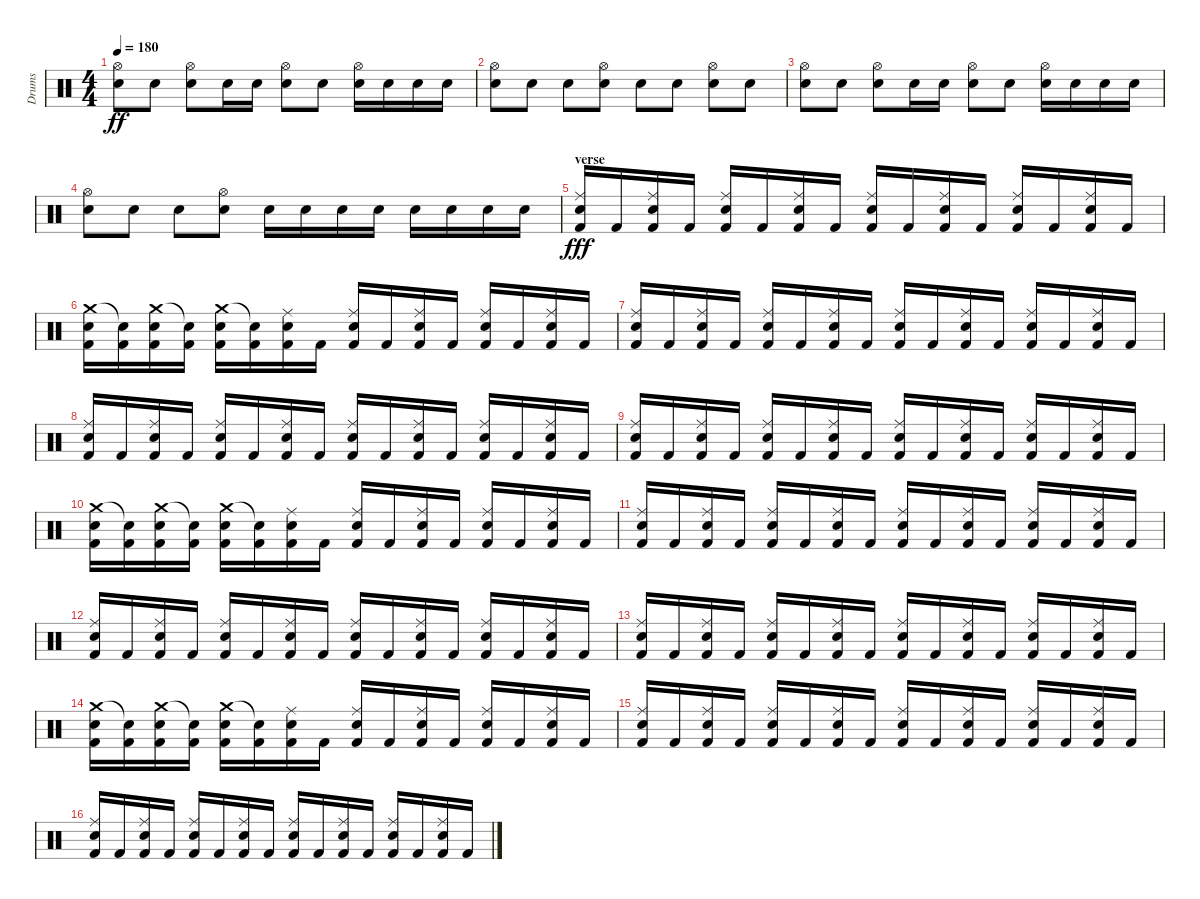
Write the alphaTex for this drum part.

\track ("Drums" "Drums") {instrument percussion}
\staff {score}
\articulation defaults
\ts (4 4)
\tempo 180
\clef neutral
\ks c
("Hi-Hat (open)" "Electric Snare (hit)").8{dy ff} "Snare (hit) 2".8 ("Hi-Hat (open)" "Electric Snare (hit)").8 "Snare (hit) 2".16 "Snare (hit) 2".16 ("Electric Snare (hit)" "Hi-Hat (open)").8 "Snare (hit) 2".8 ("Snare (hit) 2" "Hi-Hat (open)").16 "Snare (hit) 2".16 "Snare (hit) 2".16 "Snare (hit) 2".16 |
("Hi-Hat (open)" "Snare (hit) 2").8 "Snare (hit) 2".8 "Snare (hit) 2".8 ("Hi-Hat (open)" "Snare (hit) 2").8 "Snare (hit) 2".8 "Snare (hit) 2".8 ("Hi-Hat (open)" "Snare (hit) 2").8 "Snare (hit) 2".8 |
("Hi-Hat (open)" "Electric Snare (hit)").8 "Snare (hit) 2".8 ("Hi-Hat (open)" "Electric Snare (hit)").8 "Snare (hit) 2".16 "Snare (hit) 2".16 ("Electric Snare (hit)" "Hi-Hat (open)").8 "Snare (hit) 2".8 ("Snare (hit) 2" "Hi-Hat (open)").16 "Snare (hit) 2".16 "Snare (hit) 2".16 "Snare (hit) 2".16 |
("Hi-Hat (open)" "Snare (hit) 2").8 "Snare (hit) 2".8 "Snare (hit) 2".8 ("Hi-Hat (open)" "Snare (hit) 2").8 "Snare (hit) 2".16 "Snare (hit) 2".16 "Snare (hit) 2".16 "Snare (hit) 2".16 "Snare (hit) 2".16 "Snare (hit) 2".16 "Snare (hit) 2".16 "Snare (hit) 2".16 |
\section ("" "verse")
("Ride (middle)" "Electric Snare (hit)" "Kick (hit) 2").16{dy fff} "Kick (hit) 2".16 ("Ride (middle)" "Electric Snare (hit)" "Kick (hit) 2").16 "Kick (hit) 2".16 ("Ride (middle)" "Snare (hit) 2" "Kick (hit) 2").16 "Kick (hit) 2".16 ("Ride (middle)" "Snare (hit) 2" "Kick (hit) 2").16 "Kick (hit) 2".16 ("Ride (middle)" "Electric Snare (hit)" "Kick (hit) 2").16 "Kick (hit) 2".16 ("Ride (middle)" "Electric Snare (hit)" "Kick (hit) 2").16 "Kick (hit) 2".16 ("Ride (middle)" "Snare (hit) 2" "Kick (hit) 2").16 "Kick (hit) 2".16 ("Ride (middle)" "Snare (hit) 2" "Kick (hit) 2").16 "Kick (hit) 2".16 |
("Crash medium (hit)" "Electric Snare (hit)" "Kick (hit) 2").16 ("Snare (hit)"{t} "Kick (hit) 2").16 ("Crash medium (hit)" "Electric Snare (hit)" "Kick (hit) 2").16 ("Snare (hit)"{t} "Kick (hit) 2").16 ("Crash medium (hit)" "Snare (hit) 2" "Kick (hit) 2").16 ("Snare (hit)"{t} "Kick (hit) 2").16 ("Ride (middle)" "Snare (hit) 2" "Kick (hit) 2").16 "Kick (hit) 2".16 ("Ride (middle)" "Electric Snare (hit)" "Kick (hit) 2").16 "Kick (hit) 2".16 ("Ride (middle)" "Electric Snare (hit)" "Kick (hit) 2").16 "Kick (hit) 2".16 ("Ride (middle)" "Snare (hit) 2" "Kick (hit) 2").16 "Kick (hit) 2".16 ("Ride (middle)" "Snare (hit) 2" "Kick (hit) 2").16 "Kick (hit) 2".16 |
("Ride (middle)" "Electric Snare (hit)" "Kick (hit) 2").16 "Kick (hit) 2".16 ("Ride (middle)" "Electric Snare (hit)" "Kick (hit) 2").16 "Kick (hit) 2".16 ("Ride (middle)" "Snare (hit) 2" "Kick (hit) 2").16 "Kick (hit) 2".16 ("Ride (middle)" "Snare (hit) 2" "Kick (hit) 2").16 "Kick (hit) 2".16 ("Ride (middle)" "Electric Snare (hit)" "Kick (hit) 2").16 "Kick (hit) 2".16 ("Ride (middle)" "Electric Snare (hit)" "Kick (hit) 2").16 "Kick (hit) 2".16 ("Ride (middle)" "Snare (hit) 2" "Kick (hit) 2").16 "Kick (hit) 2".16 ("Ride (middle)" "Snare (hit) 2" "Kick (hit) 2").16 "Kick (hit) 2".16 |
("Ride (middle)" "Electric Snare (hit)" "Kick (hit) 2").16 "Kick (hit) 2".16 ("Ride (middle)" "Electric Snare (hit)" "Kick (hit) 2").16 "Kick (hit) 2".16 ("Ride (middle)" "Snare (hit) 2" "Kick (hit) 2").16 "Kick (hit) 2".16 ("Ride (middle)" "Snare (hit) 2" "Kick (hit) 2").16 "Kick (hit) 2".16 ("Ride (middle)" "Electric Snare (hit)" "Kick (hit) 2").16 "Kick (hit) 2".16 ("Ride (middle)" "Electric Snare (hit)" "Kick (hit) 2").16 "Kick (hit) 2".16 ("Ride (middle)" "Snare (hit) 2" "Kick (hit) 2").16 "Kick (hit) 2".16 ("Ride (middle)" "Snare (hit) 2" "Kick (hit) 2").16 "Kick (hit) 2".16 |
("Ride (middle)" "Electric Snare (hit)" "Kick (hit) 2").16 "Kick (hit) 2".16 ("Ride (middle)" "Electric Snare (hit)" "Kick (hit) 2").16 "Kick (hit) 2".16 ("Ride (middle)" "Snare (hit) 2" "Kick (hit) 2").16 "Kick (hit) 2".16 ("Ride (middle)" "Snare (hit) 2" "Kick (hit) 2").16 "Kick (hit) 2".16 ("Ride (middle)" "Electric Snare (hit)" "Kick (hit) 2").16 "Kick (hit) 2".16 ("Ride (middle)" "Electric Snare (hit)" "Kick (hit) 2").16 "Kick (hit) 2".16 ("Ride (middle)" "Snare (hit) 2" "Kick (hit) 2").16 "Kick (hit) 2".16 ("Ride (middle)" "Snare (hit) 2" "Kick (hit) 2").16 "Kick (hit) 2".16 |
("Crash medium (hit)" "Electric Snare (hit)" "Kick (hit) 2").16 ("Snare (hit)"{t} "Kick (hit) 2").16 ("Crash medium (hit)" "Electric Snare (hit)" "Kick (hit) 2").16 ("Snare (hit)"{t} "Kick (hit) 2").16 ("Crash medium (hit)" "Snare (hit) 2" "Kick (hit) 2").16 ("Snare (hit)"{t} "Kick (hit) 2").16 ("Ride (middle)" "Snare (hit) 2" "Kick (hit) 2").16 "Kick (hit) 2".16 ("Ride (middle)" "Electric Snare (hit)" "Kick (hit) 2").16 "Kick (hit) 2".16 ("Ride (middle)" "Electric Snare (hit)" "Kick (hit) 2").16 "Kick (hit) 2".16 ("Ride (middle)" "Snare (hit) 2" "Kick (hit) 2").16 "Kick (hit) 2".16 ("Ride (middle)" "Snare (hit) 2" "Kick (hit) 2").16 "Kick (hit) 2".16 |
("Ride (middle)" "Electric Snare (hit)" "Kick (hit) 2").16 "Kick (hit) 2".16 ("Ride (middle)" "Electric Snare (hit)" "Kick (hit) 2").16 "Kick (hit) 2".16 ("Ride (middle)" "Snare (hit) 2" "Kick (hit) 2").16 "Kick (hit) 2".16 ("Ride (middle)" "Snare (hit) 2" "Kick (hit) 2").16 "Kick (hit) 2".16 ("Ride (middle)" "Electric Snare (hit)" "Kick (hit) 2").16 "Kick (hit) 2".16 ("Ride (middle)" "Electric Snare (hit)" "Kick (hit) 2").16 "Kick (hit) 2".16 ("Ride (middle)" "Snare (hit) 2" "Kick (hit) 2").16 "Kick (hit) 2".16 ("Ride (middle)" "Snare (hit) 2" "Kick (hit) 2").16 "Kick (hit) 2".16 |
("Ride (middle)" "Electric Snare (hit)" "Kick (hit) 2").16 "Kick (hit) 2".16 ("Ride (middle)" "Electric Snare (hit)" "Kick (hit) 2").16 "Kick (hit) 2".16 ("Ride (middle)" "Snare (hit) 2" "Kick (hit) 2").16 "Kick (hit) 2".16 ("Ride (middle)" "Snare (hit) 2" "Kick (hit) 2").16 "Kick (hit) 2".16 ("Ride (middle)" "Electric Snare (hit)" "Kick (hit) 2").16 "Kick (hit) 2".16 ("Ride (middle)" "Electric Snare (hit)" "Kick (hit) 2").16 "Kick (hit) 2".16 ("Ride (middle)" "Snare (hit) 2" "Kick (hit) 2").16 "Kick (hit) 2".16 ("Ride (middle)" "Snare (hit) 2" "Kick (hit) 2").16 "Kick (hit) 2".16 |
("Ride (middle)" "Electric Snare (hit)" "Kick (hit) 2").16 "Kick (hit) 2".16 ("Ride (middle)" "Electric Snare (hit)" "Kick (hit) 2").16 "Kick (hit) 2".16 ("Ride (middle)" "Snare (hit) 2" "Kick (hit) 2").16 "Kick (hit) 2".16 ("Ride (middle)" "Snare (hit) 2" "Kick (hit) 2").16 "Kick (hit) 2".16 ("Ride (middle)" "Electric Snare (hit)" "Kick (hit) 2").16 "Kick (hit) 2".16 ("Ride (middle)" "Electric Snare (hit)" "Kick (hit) 2").16 "Kick (hit) 2".16 ("Ride (middle)" "Snare (hit) 2" "Kick (hit) 2").16 "Kick (hit) 2".16 ("Ride (middle)" "Snare (hit) 2" "Kick (hit) 2").16 "Kick (hit) 2".16 |
("Crash medium (hit)" "Electric Snare (hit)" "Kick (hit) 2").16 ("Snare (hit)"{t} "Kick (hit) 2").16 ("Crash medium (hit)" "Electric Snare (hit)" "Kick (hit) 2").16 ("Snare (hit)"{t} "Kick (hit) 2").16 ("Crash medium (hit)" "Snare (hit) 2" "Kick (hit) 2").16 ("Snare (hit)"{t} "Kick (hit) 2").16 ("Ride (middle)" "Snare (hit) 2" "Kick (hit) 2").16 "Kick (hit) 2".16 ("Ride (middle)" "Electric Snare (hit)" "Kick (hit) 2").16 "Kick (hit) 2".16 ("Ride (middle)" "Electric Snare (hit)" "Kick (hit) 2").16 "Kick (hit) 2".16 ("Ride (middle)" "Snare (hit) 2" "Kick (hit) 2").16 "Kick (hit) 2".16 ("Ride (middle)" "Snare (hit) 2" "Kick (hit) 2").16 "Kick (hit) 2".16 |
("Ride (middle)" "Electric Snare (hit)" "Kick (hit) 2").16 "Kick (hit) 2".16 ("Ride (middle)" "Electric Snare (hit)" "Kick (hit) 2").16 "Kick (hit) 2".16 ("Ride (middle)" "Snare (hit) 2" "Kick (hit) 2").16 "Kick (hit) 2".16 ("Ride (middle)" "Snare (hit) 2" "Kick (hit) 2").16 "Kick (hit) 2".16 ("Ride (middle)" "Electric Snare (hit)" "Kick (hit) 2").16 "Kick (hit) 2".16 ("Ride (middle)" "Electric Snare (hit)" "Kick (hit) 2").16 "Kick (hit) 2".16 ("Ride (middle)" "Snare (hit) 2" "Kick (hit) 2").16 "Kick (hit) 2".16 ("Ride (middle)" "Snare (hit) 2" "Kick (hit) 2").16 "Kick (hit) 2".16 |
("Ride (middle)" "Electric Snare (hit)" "Kick (hit) 2").16 "Kick (hit) 2".16 ("Ride (middle)" "Electric Snare (hit)" "Kick (hit) 2").16 "Kick (hit) 2".16 ("Ride (middle)" "Snare (hit) 2" "Kick (hit) 2").16 "Kick (hit) 2".16 ("Ride (middle)" "Snare (hit) 2" "Kick (hit) 2").16 "Kick (hit) 2".16 ("Ride (middle)" "Electric Snare (hit)" "Kick (hit) 2").16 "Kick (hit) 2".16 ("Ride (middle)" "Electric Snare (hit)" "Kick (hit) 2").16 "Kick (hit) 2".16 ("Ride (middle)" "Snare (hit) 2" "Kick (hit) 2").16 "Kick (hit) 2".16 ("Ride (middle)" "Snare (hit) 2" "Kick (hit) 2").16 "Kick (hit) 2".16
